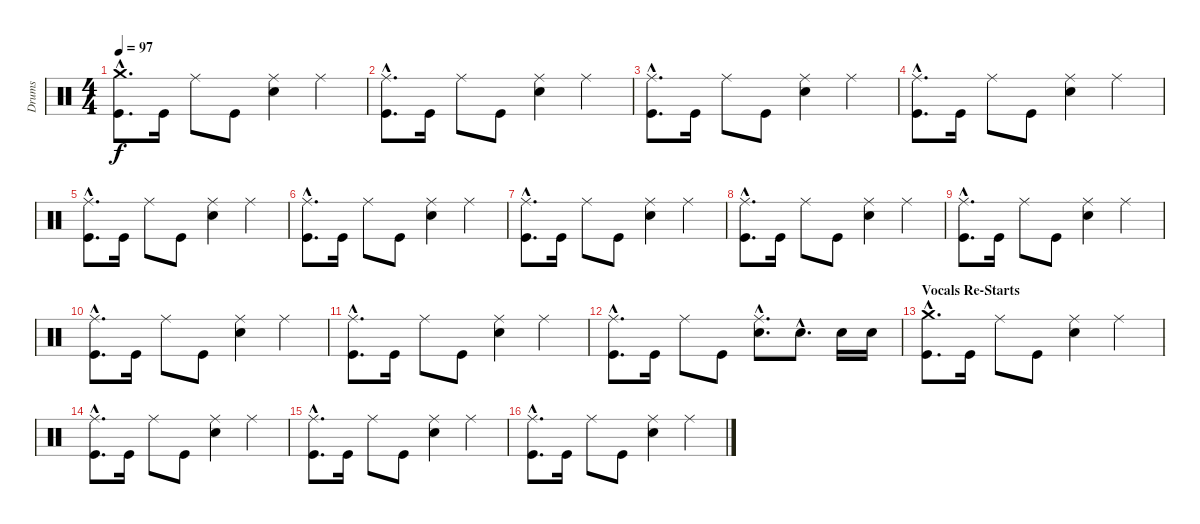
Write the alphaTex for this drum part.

\track ("Drums " "Drums ") {instrument percussion}
\staff {score}
\articulation defaults
\ts (4 4)
\tempo 97
\clef neutral
\ks c
("Crash medium (hit)"{hac} "Kick (hit)"{hac}).8{d dy f} "Kick (hit)".16 "Ride (middle)".8 "Kick (hit)".8 ("Electric Snare (hit)" "Ride (middle)").4 "Ride (middle)".4 |
("Ride (middle)"{hac} "Kick (hit)"{hac}).8{d} "Kick (hit)".16 "Ride (middle)".8 "Kick (hit)".8 ("Electric Snare (hit)" "Ride (middle)").4 "Ride (middle)".4 |
("Ride (middle)"{hac} "Kick (hit)"{hac}).8{d} "Kick (hit)".16 "Ride (middle)".8 "Kick (hit)".8 ("Electric Snare (hit)" "Ride (middle)").4 "Ride (middle)".4 |
("Ride (middle)"{hac} "Kick (hit)"{hac}).8{d} "Kick (hit)".16 "Ride (middle)".8 "Kick (hit)".8 ("Electric Snare (hit)" "Ride (middle)").4 "Ride (middle)".4 |
("Ride (middle)"{hac} "Kick (hit)"{hac}).8{d} "Kick (hit)".16 "Ride (middle)".8 "Kick (hit)".8 ("Electric Snare (hit)" "Ride (middle)").4 "Ride (middle)".4 |
("Ride (middle)"{hac} "Kick (hit)"{hac}).8{d} "Kick (hit)".16 "Ride (middle)".8 "Kick (hit)".8 ("Electric Snare (hit)" "Ride (middle)").4 "Ride (middle)".4 |
("Ride (middle)"{hac} "Kick (hit)"{hac}).8{d} "Kick (hit)".16 "Ride (middle)".8 "Kick (hit)".8 ("Electric Snare (hit)" "Ride (middle)").4 "Ride (middle)".4 |
("Ride (middle)"{hac} "Kick (hit)"{hac}).8{d} "Kick (hit)".16 "Ride (middle)".8 "Kick (hit)".8 ("Electric Snare (hit)" "Ride (middle)").4 "Ride (middle)".4 |
("Ride (middle)"{hac} "Kick (hit)"{hac}).8{d} "Kick (hit)".16 "Ride (middle)".8 "Kick (hit)".8 ("Electric Snare (hit)" "Ride (middle)").4 "Ride (middle)".4 |
("Ride (middle)"{hac} "Kick (hit)"{hac}).8{d} "Kick (hit)".16 "Ride (middle)".8 "Kick (hit)".8 ("Electric Snare (hit)" "Ride (middle)").4 "Ride (middle)".4 |
("Ride (middle)"{hac} "Kick (hit)"{hac}).8{d} "Kick (hit)".16 "Ride (middle)".8 "Kick (hit)".8 ("Electric Snare (hit)" "Ride (middle)").4 "Ride (middle)".4 |
("Ride (middle)"{hac} "Kick (hit)"{hac}).8{d} "Kick (hit)".16 "Ride (middle)".8 "Kick (hit)".8 ("Electric Snare (hit)"{hac} "Ride (middle)"{hac}).8{d} "Electric Snare (hit)"{hac}.8{d} "Electric Snare (hit)".16 "Electric Snare (hit)".16 |
\section ("" "Vocals Re-Starts")
("Crash medium (hit)"{hac} "Kick (hit)"{hac}).8{d} "Kick (hit)".16 "Ride (middle)".8 "Kick (hit)".8 ("Electric Snare (hit)" "Ride (middle)").4 "Ride (middle)".4 |
("Ride (middle)"{hac} "Kick (hit)"{hac}).8{d} "Kick (hit)".16 "Ride (middle)".8 "Kick (hit)".8 ("Electric Snare (hit)" "Ride (middle)").4 "Ride (middle)".4 |
("Ride (middle)"{hac} "Kick (hit)"{hac}).8{d} "Kick (hit)".16 "Ride (middle)".8 "Kick (hit)".8 ("Electric Snare (hit)" "Ride (middle)").4 "Ride (middle)".4 |
("Ride (middle)"{hac} "Kick (hit)"{hac}).8{d} "Kick (hit)".16 "Ride (middle)".8 "Kick (hit)".8 ("Electric Snare (hit)" "Ride (middle)").4 "Ride (middle)".4
